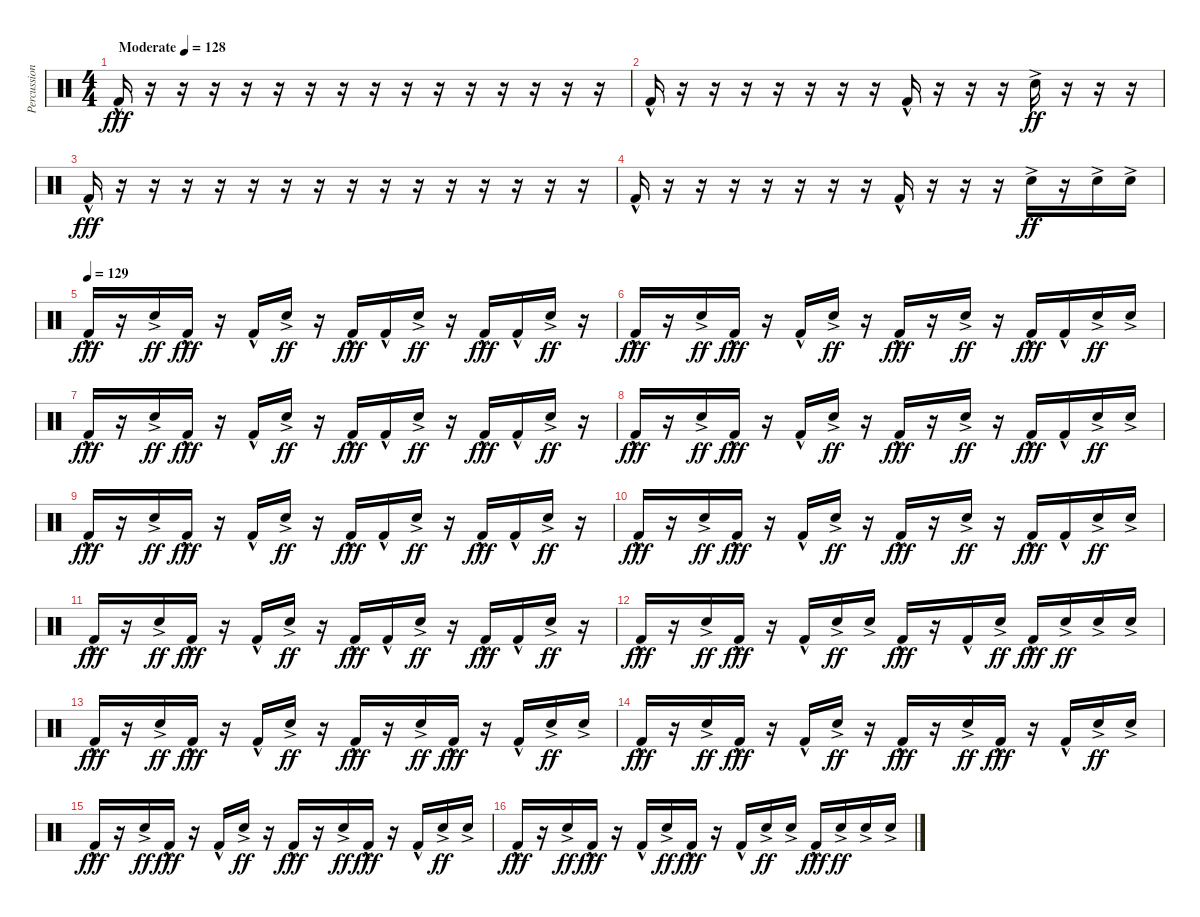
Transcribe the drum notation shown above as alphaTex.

\track ("Percussion" "Percussion") {instrument percussion}
\staff {score}
\articulation defaults
\ts (4 4)
\tempo (128 "Moderate")
\clef neutral
\ks c "Kick (hit) 2"{hac}.16{dy fff}
r.16 r.16 r.16 r.16 r.16 r.16 r.16 r.16 r.16 r.16 r.16 r.16 r.16 r.16 r.16 |
"Kick (hit) 2"{hac}.16 r.16 r.16 r.16 r.16 r.16 r.16 r.16 "Kick (hit) 2"{hac}.16 r.16 r.16 r.16 "Snare (hit) 2"{ac}.16{dy ff} r.16 r.16 r.16 |
"Kick (hit) 2"{hac}.16{dy fff} r.16 r.16 r.16 r.16 r.16 r.16 r.16 r.16 r.16 r.16 r.16 r.16 r.16 r.16 r.16 |
"Kick (hit) 2"{hac}.16 r.16 r.16 r.16 r.16 r.16 r.16 r.16 "Kick (hit) 2"{hac}.16 r.16 r.16 r.16 "Snare (hit) 2"{ac}.16{dy ff} r.16 "Snare (hit) 2"{ac}.16 "Snare (hit) 2"{ac}.16 |
\tempo (129)
"Kick (hit) 2"{hac}.16{dy fff} r.16 "Snare (hit) 2"{ac}.16{dy ff} "Kick (hit) 2"{hac}.16{dy fff} r.16 "Kick (hit) 2"{hac}.16 "Snare (hit) 2"{ac}.16{dy ff} r.16 "Kick (hit) 2"{hac}.16{dy fff} "Kick (hit) 2"{hac}.16 "Snare (hit) 2"{ac}.16{dy ff} r.16 "Kick (hit) 2"{hac}.16{dy fff} "Kick (hit) 2"{hac}.16 "Snare (hit) 2"{ac}.16{dy ff} r.16 |
"Kick (hit) 2"{hac}.16{dy fff} r.16 "Snare (hit) 2"{ac}.16{dy ff} "Kick (hit) 2"{hac}.16{dy fff} r.16 "Kick (hit) 2"{hac}.16 "Snare (hit) 2"{ac}.16{dy ff} r.16 "Kick (hit) 2"{hac}.16{dy fff} r.16 "Snare (hit) 2"{ac}.16{dy ff} r.16 "Kick (hit) 2"{hac}.16{dy fff} "Kick (hit) 2"{hac}.16 "Snare (hit) 2"{ac}.16{dy ff} "Snare (hit) 2"{ac}.16 |
"Kick (hit) 2"{hac}.16{dy fff} r.16 "Snare (hit) 2"{ac}.16{dy ff} "Kick (hit) 2"{hac}.16{dy fff} r.16 "Kick (hit) 2"{hac}.16 "Snare (hit) 2"{ac}.16{dy ff} r.16 "Kick (hit) 2"{hac}.16{dy fff} "Kick (hit) 2"{hac}.16 "Snare (hit) 2"{ac}.16{dy ff} r.16 "Kick (hit) 2"{hac}.16{dy fff} "Kick (hit) 2"{hac}.16 "Snare (hit) 2"{ac}.16{dy ff} r.16 |
"Kick (hit) 2"{hac}.16{dy fff} r.16 "Snare (hit) 2"{ac}.16{dy ff} "Kick (hit) 2"{hac}.16{dy fff} r.16 "Kick (hit) 2"{hac}.16 "Snare (hit) 2"{ac}.16{dy ff} r.16 "Kick (hit) 2"{hac}.16{dy fff} r.16 "Snare (hit) 2"{ac}.16{dy ff} r.16 "Kick (hit) 2"{hac}.16{dy fff} "Kick (hit) 2"{hac}.16 "Snare (hit) 2"{ac}.16{dy ff} "Snare (hit) 2"{ac}.16 |
"Kick (hit) 2"{hac}.16{dy fff} r.16 "Snare (hit) 2"{ac}.16{dy ff} "Kick (hit) 2"{hac}.16{dy fff} r.16 "Kick (hit) 2"{hac}.16 "Snare (hit) 2"{ac}.16{dy ff} r.16 "Kick (hit) 2"{hac}.16{dy fff} "Kick (hit) 2"{hac}.16 "Snare (hit) 2"{ac}.16{dy ff} r.16 "Kick (hit) 2"{hac}.16{dy fff} "Kick (hit) 2"{hac}.16 "Snare (hit) 2"{ac}.16{dy ff} r.16 |
"Kick (hit) 2"{hac}.16{dy fff} r.16 "Snare (hit) 2"{ac}.16{dy ff} "Kick (hit) 2"{hac}.16{dy fff} r.16 "Kick (hit) 2"{hac}.16 "Snare (hit) 2"{ac}.16{dy ff} r.16 "Kick (hit) 2"{hac}.16{dy fff} r.16 "Snare (hit) 2"{ac}.16{dy ff} r.16 "Kick (hit) 2"{hac}.16{dy fff} "Kick (hit) 2"{hac}.16 "Snare (hit) 2"{ac}.16{dy ff} "Snare (hit) 2"{ac}.16 |
"Kick (hit) 2"{hac}.16{dy fff} r.16 "Snare (hit) 2"{ac}.16{dy ff} "Kick (hit) 2"{hac}.16{dy fff} r.16 "Kick (hit) 2"{hac}.16 "Snare (hit) 2"{ac}.16{dy ff} r.16 "Kick (hit) 2"{hac}.16{dy fff} "Kick (hit) 2"{hac}.16 "Snare (hit) 2"{ac}.16{dy ff} r.16 "Kick (hit) 2"{hac}.16{dy fff} "Kick (hit) 2"{hac}.16 "Snare (hit) 2"{ac}.16{dy ff} r.16 |
"Kick (hit) 2"{hac}.16{dy fff} r.16 "Snare (hit) 2"{ac}.16{dy ff} "Kick (hit) 2"{hac}.16{dy fff} r.16 "Kick (hit) 2"{hac}.16 "Snare (hit) 2"{ac}.16{dy ff} "Snare (hit) 2"{ac}.16 "Kick (hit) 2"{hac}.16{dy fff} r.16 "Kick (hit) 2"{hac}.16 "Snare (hit) 2"{ac}.16{dy ff} "Kick (hit) 2"{hac}.16{dy fff} "Snare (hit) 2"{ac}.16{dy ff} "Snare (hit) 2"{ac}.16 "Snare (hit) 2"{ac}.16 |
"Kick (hit) 2"{hac}.16{dy fff} r.16 "Snare (hit) 2"{ac}.16{dy ff} "Kick (hit) 2"{hac}.16{dy fff} r.16 "Kick (hit) 2"{hac}.16 "Snare (hit) 2"{ac}.16{dy ff} r.16 "Kick (hit) 2"{hac}.16{dy fff} r.16 "Snare (hit) 2"{ac}.16{dy ff} "Kick (hit) 2"{hac}.16{dy fff} r.16 "Kick (hit) 2"{hac}.16 "Snare (hit) 2"{ac}.16{dy ff} "Snare (hit) 2"{ac}.16 |
"Kick (hit) 2"{hac}.16{dy fff} r.16 "Snare (hit) 2"{ac}.16{dy ff} "Kick (hit) 2"{hac}.16{dy fff} r.16 "Kick (hit) 2"{hac}.16 "Snare (hit) 2"{ac}.16{dy ff} r.16 "Kick (hit) 2"{hac}.16{dy fff} r.16 "Snare (hit) 2"{ac}.16{dy ff} "Kick (hit) 2"{hac}.16{dy fff} r.16 "Kick (hit) 2"{hac}.16 "Snare (hit) 2"{ac}.16{dy ff} "Snare (hit) 2"{ac}.16 |
"Kick (hit) 2"{hac}.16{dy fff} r.16 "Snare (hit) 2"{ac}.16{dy ff} "Kick (hit) 2"{hac}.16{dy fff} r.16 "Kick (hit) 2"{hac}.16 "Snare (hit) 2"{ac}.16{dy ff} r.16 "Kick (hit) 2"{hac}.16{dy fff} r.16 "Snare (hit) 2"{ac}.16{dy ff} "Kick (hit) 2"{hac}.16{dy fff} r.16 "Kick (hit) 2"{hac}.16 "Snare (hit) 2"{ac}.16{dy ff} "Snare (hit) 2"{ac}.16 |
"Kick (hit) 2"{hac}.16{dy fff} r.16 "Snare (hit) 2"{ac}.16{dy ff} "Kick (hit) 2"{hac}.16{dy fff} r.16 "Kick (hit) 2"{hac}.16 "Snare (hit) 2"{ac}.16{dy ff} "Kick (hit) 2"{hac}.16{dy fff} r.16 "Kick (hit) 2"{hac}.16 "Snare (hit) 2"{ac}.16{dy ff} "Snare (hit) 2"{ac}.16 "Kick (hit) 2"{hac}.16{dy fff} "Snare (hit) 2"{ac}.16{dy ff} "Snare (hit) 2"{ac}.16 "Snare (hit) 2"{ac}.16
